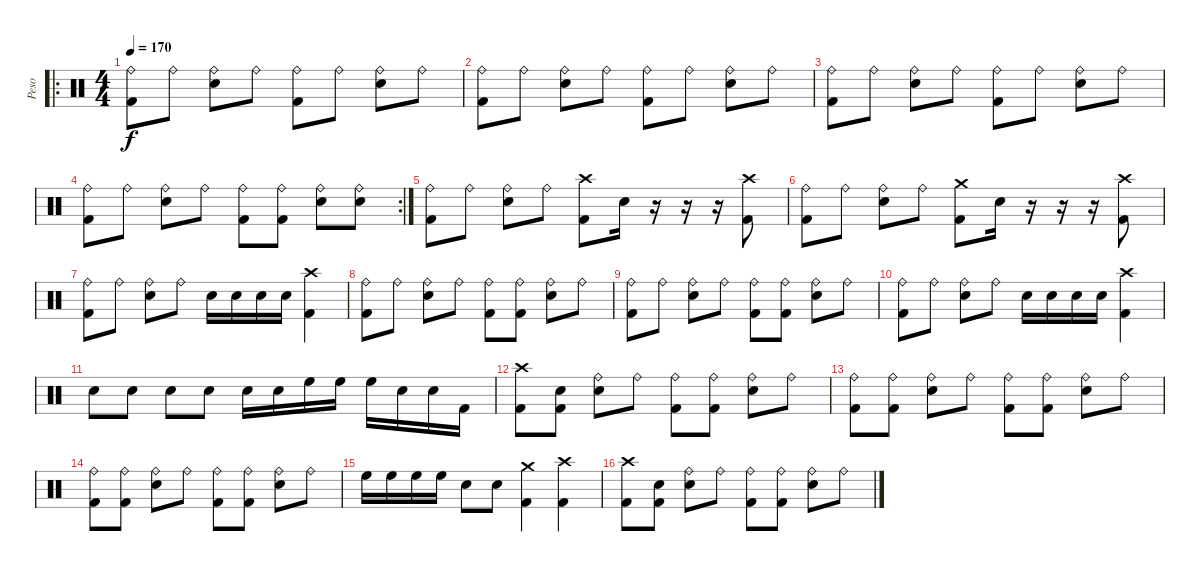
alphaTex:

\track ("Peso" "Peso") {instrument percussion}
\staff {score}
\articulation defaults
\ro
\ts (4 4)
\tempo 170
\clef neutral
\ks c
("Ride (bell)" "Kick (hit) 2").8{dy f} "Ride (bell)"{x}.8 ("Ride (bell)" "Snare (hit) 2").8 "Ride (bell)"{x}.8 ("Ride (bell)" "Kick (hit) 2").8 "Ride (bell)"{x}.8 ("Ride (bell)" "Snare (hit) 2").8 "Ride (bell)"{x}.8 |
("Ride (bell)" "Kick (hit) 2").8 "Ride (bell)"{x}.8 ("Ride (bell)" "Snare (hit) 2").8 "Ride (bell)"{x}.8 ("Ride (bell)" "Kick (hit) 2").8 "Ride (bell)"{x}.8 ("Ride (bell)" "Snare (hit) 2").8 "Ride (bell)"{x}.8 |
("Ride (bell)" "Kick (hit) 2").8 "Ride (bell)"{x}.8 ("Ride (bell)" "Snare (hit) 2").8 "Ride (bell)"{x}.8 ("Ride (bell)" "Kick (hit) 2").8 "Ride (bell)"{x}.8 ("Ride (bell)" "Snare (hit) 2").8 "Ride (bell)"{x}.8 |
\rc 2
("Ride (bell)" "Kick (hit) 2").8 "Ride (bell)"{x}.8 ("Ride (bell)" "Snare (hit) 2").8 "Ride (bell)"{x}.8 ("Ride (bell)" "Kick (hit) 2").8 ("Ride (bell)"{x} "Kick (hit) 2").8 ("Ride (bell)" "Snare (hit) 2").8 ("Ride (bell)"{x} "Snare (hit) 2").8 |
("Ride (bell)" "Kick (hit) 2").8 "Ride (bell)"{x}.8 ("Ride (bell)" "Snare (hit) 2").8 "Ride (bell)"{x}.8 ("Crash high (hit)" "Kick (hit) 2").8 "Snare (hit) 2".16 r.16 r.16 r.16 ("Crash high (hit)" "Kick (hit) 2").8 |
("Ride (bell)" "Kick (hit) 2").8 "Ride (bell)"{x}.8 ("Ride (bell)" "Snare (hit) 2").8 "Ride (bell)"{x}.8 ("Crash medium (hit)" "Kick (hit) 2").8 "Snare (hit) 2".16 r.16 r.16 r.16 ("Crash high (hit)" "Kick (hit) 2").8 |
("Ride (bell)" "Kick (hit) 2").8 "Ride (bell)"{x}.8 ("Ride (bell)" "Snare (hit) 2").8 "Ride (bell)"{x}.8 "Snare (hit) 2".16 "Snare (hit) 2".16 "Snare (hit) 2".16 "Snare (hit) 2".16 ("Crash high (hit)" "Kick (hit) 2").4 |
("Ride (bell)" "Kick (hit) 2").8 "Ride (bell)"{x}.8 ("Ride (bell)" "Snare (hit) 2").8 "Ride (bell)"{x}.8 ("Ride (bell)" "Kick (hit) 2").8 ("Ride (bell)"{x} "Kick (hit) 2").8 ("Ride (bell)" "Snare (hit) 2").8 "Ride (bell)"{x}.8 |
("Ride (bell)" "Kick (hit) 2").8 "Ride (bell)"{x}.8 ("Ride (bell)" "Snare (hit) 2").8 "Ride (bell)"{x}.8 ("Ride (bell)" "Kick (hit) 2").8 ("Ride (bell)"{x} "Kick (hit) 2").8 ("Ride (bell)" "Snare (hit) 2").8 "Ride (bell)"{x}.8 |
("Ride (bell)" "Kick (hit) 2").8 "Ride (bell)"{x}.8 ("Ride (bell)" "Snare (hit) 2").8 "Ride (bell)"{x}.8 "Snare (hit) 2".16 "Snare (hit) 2".16 "Snare (hit) 2".16 "Snare (hit) 2".16 ("Crash high (hit)" "Kick (hit) 2").4 |
"Snare (hit) 2".8 "Snare (hit) 2".8 "Snare (hit) 2".8 "Snare (hit) 2".8 "Snare (hit) 2".16 "Snare (hit) 2".16 "High Floor Tom (hit)".16 "High Floor Tom (hit)".16 "High Floor Tom (hit)".16 "Snare (hit) 2".16 "Snare (hit) 2".16 "Kick (hit) 2".16 |
("Crash high (hit)" "Kick (hit) 2").8 ("Snare (hit)"{x} "Kick (hit) 2").8 ("Ride (bell)" "Snare (hit) 2").8 "Ride (bell)"{x}.8 ("Ride (bell)" "Kick (hit) 2").8 ("Ride (bell)"{x} "Kick (hit) 2").8 ("Ride (bell)" "Snare (hit) 2").8 "Ride (bell)"{x}.8 |
("Ride (bell)" "Kick (hit) 2").8 ("Ride (bell)"{x} "Kick (hit) 2").8 ("Ride (bell)" "Snare (hit) 2").8 "Ride (bell)"{x}.8 ("Ride (bell)" "Kick (hit) 2").8 ("Ride (bell)"{x} "Kick (hit) 2").8 ("Ride (bell)" "Snare (hit) 2").8 "Ride (bell)"{x}.8 |
("Ride (bell)" "Kick (hit) 2").8 ("Ride (bell)"{x} "Kick (hit) 2").8 ("Ride (bell)" "Snare (hit) 2").8 "Ride (bell)"{x}.8 ("Ride (bell)" "Kick (hit) 2").8 ("Ride (bell)"{x} "Kick (hit) 2").8 ("Ride (bell)" "Snare (hit) 2").8 "Ride (bell)"{x}.8 |
"High Floor Tom (hit)"{x}.16 "High Floor Tom (hit)".16 "High Floor Tom (hit)".16 "High Floor Tom (hit)"{x}.16 "Snare (hit) 2".8 "Snare (hit) 2".8 ("Crash medium (hit)" "Kick (hit) 2").4 ("Crash high (hit)" "Kick (hit) 2").4 |
("Crash high (hit)" "Kick (hit) 2").8 ("Snare (hit)"{x} "Kick (hit) 2").8 ("Ride (bell)" "Snare (hit) 2").8 "Ride (bell)"{x}.8 ("Ride (bell)" "Kick (hit) 2").8 ("Ride (bell)"{x} "Kick (hit) 2").8 ("Ride (bell)" "Snare (hit) 2").8 "Ride (bell)"{x}.8
